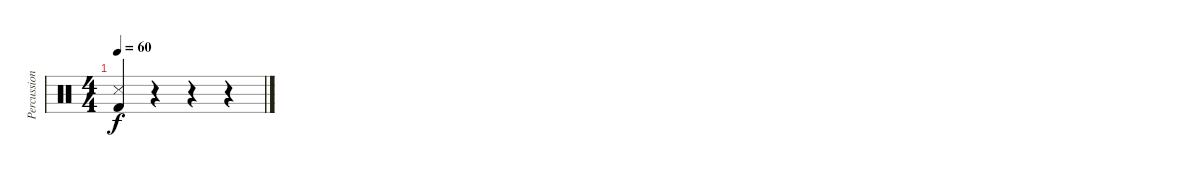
\track ("Percussions" "Percussion") {instrument percussion}
\staff {score}
\articulation defaults
\ts (4 4)
\tempo 60
\clef neutral
\ks c
("Snare (side stick) 3" "Kick (hit) 2").4{dy f} r.4 r.4 r.4
